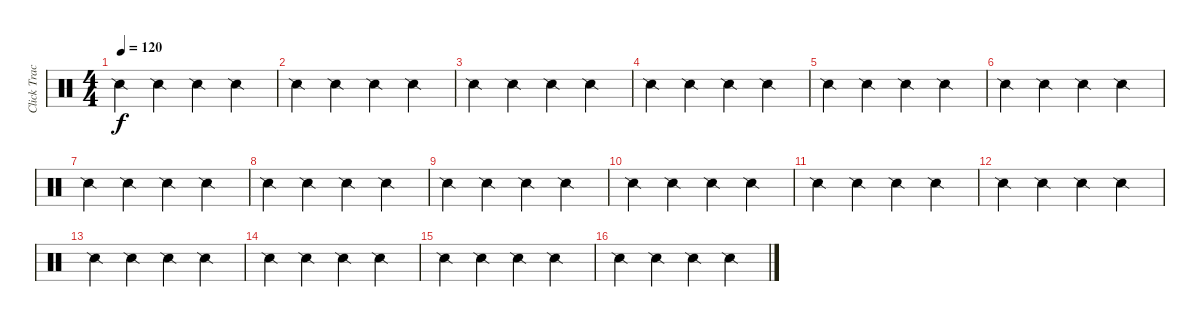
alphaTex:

\track ("Click Track" "Click Trac") {instrument percussion}
\staff {score}
\articulation defaults
\ts (4 4)
\tempo 120
\clef neutral
\ks c "Snare (side stick) 2".4{dy f} "Snare (side stick) 2".4 "Snare (side stick) 2".4 "Snare (side stick) 2".4
|
"Snare (side stick) 2".4 "Snare (side stick) 2".4 "Snare (side stick) 2".4 "Snare (side stick) 2".4 |
"Snare (side stick) 2".4 "Snare (side stick) 2".4 "Snare (side stick) 2".4 "Snare (side stick) 2".4 |
"Snare (side stick) 2".4 "Snare (side stick) 2".4 "Snare (side stick) 2".4 "Snare (side stick) 2".4 |
"Snare (side stick) 2".4 "Snare (side stick) 2".4 "Snare (side stick) 2".4 "Snare (side stick) 2".4 |
"Snare (side stick) 2".4 "Snare (side stick) 2".4 "Snare (side stick) 2".4 "Snare (side stick) 2".4 |
"Snare (side stick) 2".4 "Snare (side stick) 2".4 "Snare (side stick) 2".4 "Snare (side stick) 2".4 |
"Snare (side stick) 2".4 "Snare (side stick) 2".4 "Snare (side stick) 2".4 "Snare (side stick) 2".4 |
"Snare (side stick) 2".4 "Snare (side stick) 2".4 "Snare (side stick) 2".4 "Snare (side stick) 2".4 |
"Snare (side stick) 2".4 "Snare (side stick) 2".4 "Snare (side stick) 2".4 "Snare (side stick) 2".4 |
"Snare (side stick) 2".4 "Snare (side stick) 2".4 "Snare (side stick) 2".4 "Snare (side stick) 2".4 |
"Snare (side stick) 2".4 "Snare (side stick) 2".4 "Snare (side stick) 2".4 "Snare (side stick) 2".4 |
"Snare (side stick) 2".4 "Snare (side stick) 2".4 "Snare (side stick) 2".4 "Snare (side stick) 2".4 |
"Snare (side stick) 2".4 "Snare (side stick) 2".4 "Snare (side stick) 2".4 "Snare (side stick) 2".4 |
"Snare (side stick) 2".4 "Snare (side stick) 2".4 "Snare (side stick) 2".4 "Snare (side stick) 2".4 |
"Snare (side stick) 2".4 "Snare (side stick) 2".4 "Snare (side stick) 2".4 "Snare (side stick) 2".4
